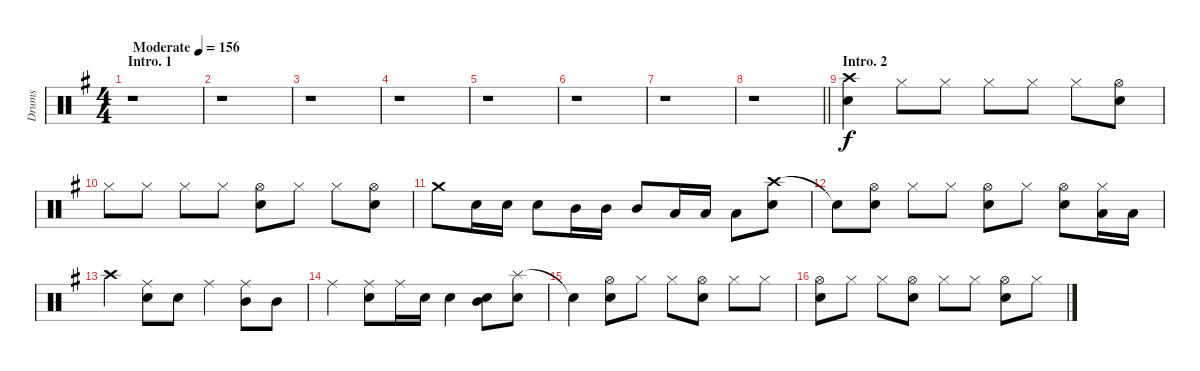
\track ("Drums" "Drums") {instrument percussion}
\staff {score}
\articulation defaults
\ts (4 4)
\section ("" "Intro. 1")
\tempo (156 "Moderate")
\clef neutral
\ks g
r.1{dy f} |
r.1 |
r.1 |
r.1 |
r.1 |
r.1 |
r.1 |
\barLineRight lightlight
r.1 |
\section ("" "Intro. 2")
("Crash high (hit)" "Snare (hit) 2").4 "Hi-Hat (closed)".8 "Hi-Hat (closed)".8 "Hi-Hat (closed)".8 "Hi-Hat (closed)".8 "Hi-Hat (closed)".8 ("Hi-Hat (open)" "Snare (hit) 2").8 |
"Hi-Hat (closed)".8 "Hi-Hat (closed)".8 "Hi-Hat (closed)".8 "Hi-Hat (closed)".8 ("Hi-Hat (open)" "Snare (hit) 2").8 "Hi-Hat (closed)".8 "Hi-Hat (closed)".8 ("Hi-Hat (open)" "Snare (hit) 2").8 |
"Crash medium (hit)".8 "Snare (hit) 2".16 "Snare (hit) 2".16 "Snare (hit) 2".8 "Mid Tom (hit)".16 "Mid Tom (hit)".16 "Mid Tom (hit)".8 "Low Tom (hit)".16 "Low Tom (hit)".16 "Low Tom (hit)".8 ("Crash high (hit)" "Snare (hit) 2").8 |
"Snare (hit)"{t}.8 ("Hi-Hat (open)" "Snare (hit) 2").8 "Hi-Hat (closed)".8 "Hi-Hat (closed)".8 ("Hi-Hat (open)" "Snare (hit) 2").8 "Hi-Hat (closed)".8 ("Hi-Hat (open)" "Snare (hit) 2").8 ("Hi-Hat (closed)" "Low Tom (hit)").16 "Low Tom (hit)".16 |
"Crash high (hit)".4 ("Ride (middle)" "Snare (hit) 2").8 "Snare (hit) 2".8 "Ride (middle)".4 ("Ride (middle)" "Mid Tom (hit)").8 "Mid Tom (hit)".8 |
"Ride (middle)".4 ("Ride (middle)" "Snare (hit) 2").8 "Ride (middle)".16 "Snare (hit) 2".16 "Snare (hit) 2".4 ("Mid Tom (hit)" "Snare (hit) 2").8 ("Splash (hit)" "Snare (hit) 2").8 |
"Snare (hit)"{t}.4 ("Hi-Hat (open)" "Snare (hit) 2").8 "Hi-Hat (closed)".8 "Hi-Hat (closed)".8 ("Hi-Hat (open)" "Snare (hit) 2").8 "Hi-Hat (closed)".8 "Hi-Hat (closed)".8 |
("Hi-Hat (open)" "Snare (hit) 2").8 "Hi-Hat (closed)".8 "Hi-Hat (closed)".8 ("Hi-Hat (open)" "Snare (hit) 2").8 "Hi-Hat (closed)".8 "Hi-Hat (closed)".8 ("Hi-Hat (open)" "Snare (hit) 2").8 "Hi-Hat (closed)".8
